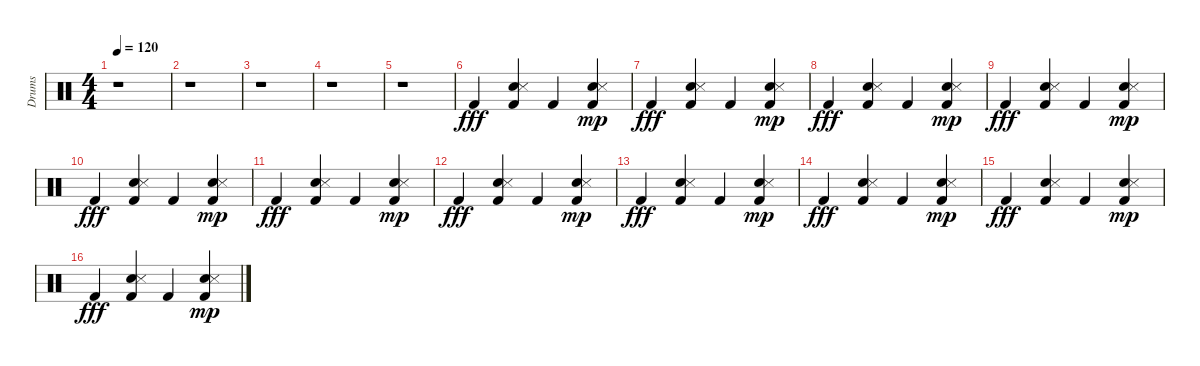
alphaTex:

\track ("Drums" "Drums") {instrument percussion}
\staff {score}
\articulation defaults
\ts (4 4)
\tempo 120
\clef neutral
\ks c
r.1{dy mp} |
r.1 |
r.1 |
r.1 |
r.1 |
"Kick (hit) 2".4{dy fff} ("Hand Clap (hit)" "Kick (hit) 2" "Snare (side stick) 3").4 "Kick (hit) 2".4 ("Kick (hit) 2" "Hand Clap (hit)" "Snare (side stick) 3").4{dy mp} |
"Kick (hit) 2".4{dy fff} ("Hand Clap (hit)" "Kick (hit) 2" "Snare (side stick) 3").4 "Kick (hit) 2".4 ("Kick (hit) 2" "Hand Clap (hit)" "Snare (side stick) 3").4{dy mp} |
"Kick (hit) 2".4{dy fff} ("Hand Clap (hit)" "Kick (hit) 2" "Snare (side stick) 3").4 "Kick (hit) 2".4 ("Kick (hit) 2" "Hand Clap (hit)" "Snare (side stick) 3").4{dy mp} |
"Kick (hit) 2".4{dy fff} ("Hand Clap (hit)" "Kick (hit) 2" "Snare (side stick) 3").4 "Kick (hit) 2".4 ("Kick (hit) 2" "Hand Clap (hit)" "Snare (side stick) 3").4{dy mp} |
"Kick (hit) 2".4{dy fff} ("Hand Clap (hit)" "Kick (hit) 2" "Snare (side stick) 3").4 "Kick (hit) 2".4 ("Kick (hit) 2" "Hand Clap (hit)" "Snare (side stick) 3").4{dy mp} |
"Kick (hit) 2".4{dy fff} ("Hand Clap (hit)" "Kick (hit) 2" "Snare (side stick) 3").4 "Kick (hit) 2".4 ("Kick (hit) 2" "Hand Clap (hit)" "Snare (side stick) 3").4{dy mp} |
"Kick (hit) 2".4{dy fff} ("Hand Clap (hit)" "Kick (hit) 2" "Snare (side stick) 3").4 "Kick (hit) 2".4 ("Kick (hit) 2" "Hand Clap (hit)" "Snare (side stick) 3").4{dy mp} |
"Kick (hit) 2".4{dy fff} ("Hand Clap (hit)" "Kick (hit) 2" "Snare (side stick) 3").4 "Kick (hit) 2".4 ("Kick (hit) 2" "Hand Clap (hit)" "Snare (side stick) 3").4{dy mp} |
"Kick (hit) 2".4{dy fff} ("Hand Clap (hit)" "Kick (hit) 2" "Snare (side stick) 3").4 "Kick (hit) 2".4 ("Kick (hit) 2" "Hand Clap (hit)" "Snare (side stick) 3").4{dy mp} |
"Kick (hit) 2".4{dy fff} ("Hand Clap (hit)" "Kick (hit) 2" "Snare (side stick) 3").4 "Kick (hit) 2".4 ("Kick (hit) 2" "Hand Clap (hit)" "Snare (side stick) 3").4{dy mp} |
"Kick (hit) 2".4{dy fff} ("Hand Clap (hit)" "Kick (hit) 2" "Snare (side stick) 3").4 "Kick (hit) 2".4 ("Kick (hit) 2" "Hand Clap (hit)" "Snare (side stick) 3").4{dy mp}
